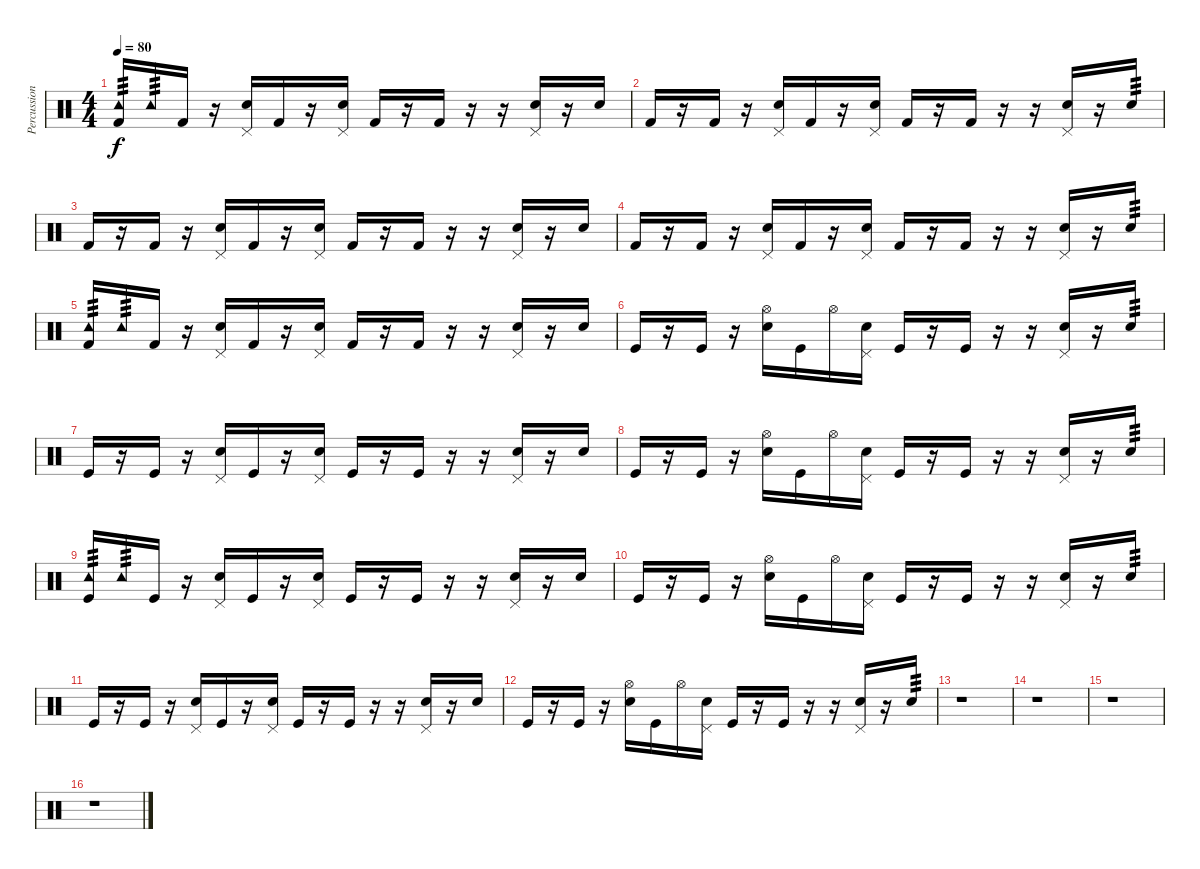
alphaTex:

\track ("Percussion" "Percussion") {instrument percussion}
\staff {score}
\articulation defaults
\ts (4 4)
\tempo 80
\clef neutral
\ks c
("Kick (hit) 2" "Tambourine (hit)").16{tp 3 dy f} "Tambourine (hit)".16{tp 3} "Kick (hit) 2".16 r.16 ("Hand Clap (hit)" "Pedal Hi-Hat (hit)").16 "Kick (hit) 2".16 r.16 ("Hand Clap (hit)" "Pedal Hi-Hat (hit)").16 "Kick (hit) 2".16 r.16 "Kick (hit) 2".16 r.16 r.16 ("Hand Clap (hit)" "Pedal Hi-Hat (hit)").16 r.16 "Hand Clap (hit)".16 |
"Kick (hit) 2".16 r.16 "Kick (hit) 2".16 r.16 ("Hand Clap (hit)" "Pedal Hi-Hat (hit)").16 "Kick (hit) 2".16 r.16 ("Hand Clap (hit)" "Pedal Hi-Hat (hit)").16 "Kick (hit) 2".16 r.16 "Kick (hit) 2".16 r.16 r.16 ("Hand Clap (hit)" "Pedal Hi-Hat (hit)").16 r.16 "Hand Clap (hit)".16{tp 3} |
"Kick (hit) 2".16 r.16 "Kick (hit) 2".16 r.16 ("Hand Clap (hit)" "Pedal Hi-Hat (hit)").16 "Kick (hit) 2".16 r.16 ("Hand Clap (hit)" "Pedal Hi-Hat (hit)").16 "Kick (hit) 2".16 r.16 "Kick (hit) 2".16 r.16 r.16 ("Hand Clap (hit)" "Pedal Hi-Hat (hit)").16 r.16 "Hand Clap (hit)".16 |
"Kick (hit) 2".16 r.16 "Kick (hit) 2".16 r.16 ("Hand Clap (hit)" "Pedal Hi-Hat (hit)").16 "Kick (hit) 2".16 r.16 ("Hand Clap (hit)" "Pedal Hi-Hat (hit)").16 "Kick (hit) 2".16 r.16 "Kick (hit) 2".16 r.16 r.16 ("Hand Clap (hit)" "Pedal Hi-Hat (hit)").16 r.16 "Hand Clap (hit)".16{tp 3} |
("Kick (hit) 2" "Tambourine (hit)").16{tp 3} "Tambourine (hit)".16{tp 3} "Kick (hit) 2".16 r.16 ("Hand Clap (hit)" "Pedal Hi-Hat (hit)").16 "Kick (hit) 2".16 r.16 ("Hand Clap (hit)" "Pedal Hi-Hat (hit)").16 "Kick (hit) 2".16 r.16 "Kick (hit) 2".16 r.16 r.16 ("Hand Clap (hit)" "Pedal Hi-Hat (hit)").16 r.16 "Hand Clap (hit)".16 |
"Kick (hit)".16 r.16 "Kick (hit)".16 r.16 ("Hand Clap (hit)" "Hi-Hat (open)").16 "Kick (hit)".16 "Hi-Hat (open)".16 ("Hand Clap (hit)" "Pedal Hi-Hat (hit)").16 "Kick (hit)".16 r.16 "Kick (hit)".16 r.16 r.16 ("Hand Clap (hit)" "Pedal Hi-Hat (hit)").16 r.16 "Hand Clap (hit)".16{tp 3} |
"Kick (hit)".16 r.16 "Kick (hit)".16 r.16 ("Hand Clap (hit)" "Pedal Hi-Hat (hit)").16 "Kick (hit)".16 r.16 ("Hand Clap (hit)" "Pedal Hi-Hat (hit)").16 "Kick (hit)".16 r.16 "Kick (hit)".16 r.16 r.16 ("Hand Clap (hit)" "Pedal Hi-Hat (hit)").16 r.16 "Hand Clap (hit)".16 |
"Kick (hit)".16 r.16 "Kick (hit)".16 r.16 ("Hand Clap (hit)" "Hi-Hat (open)").16 "Kick (hit)".16 "Hi-Hat (open)".16 ("Hand Clap (hit)" "Pedal Hi-Hat (hit)").16 "Kick (hit)".16 r.16 "Kick (hit)".16 r.16 r.16 ("Hand Clap (hit)" "Pedal Hi-Hat (hit)").16 r.16 "Hand Clap (hit)".16{tp 3} |
("Kick (hit)" "Tambourine (hit)").16{tp 3} "Tambourine (hit)".16{tp 3} "Kick (hit)".16 r.16 ("Hand Clap (hit)" "Pedal Hi-Hat (hit)").16 "Kick (hit)".16 r.16 ("Hand Clap (hit)" "Pedal Hi-Hat (hit)").16 "Kick (hit)".16 r.16 "Kick (hit)".16 r.16 r.16 ("Hand Clap (hit)" "Pedal Hi-Hat (hit)").16 r.16 "Hand Clap (hit)".16 |
"Kick (hit)".16 r.16 "Kick (hit)".16 r.16 ("Hand Clap (hit)" "Hi-Hat (open)").16 "Kick (hit)".16 "Hi-Hat (open)".16 ("Hand Clap (hit)" "Pedal Hi-Hat (hit)").16 "Kick (hit)".16 r.16 "Kick (hit)".16 r.16 r.16 ("Hand Clap (hit)" "Pedal Hi-Hat (hit)").16 r.16 "Hand Clap (hit)".16{tp 3} |
"Kick (hit)".16 r.16 "Kick (hit)".16 r.16 ("Hand Clap (hit)" "Pedal Hi-Hat (hit)").16 "Kick (hit)".16 r.16 ("Hand Clap (hit)" "Pedal Hi-Hat (hit)").16 "Kick (hit)".16 r.16 "Kick (hit)".16 r.16 r.16 ("Hand Clap (hit)" "Pedal Hi-Hat (hit)").16 r.16 "Hand Clap (hit)".16 |
"Kick (hit)".16 r.16 "Kick (hit)".16 r.16 ("Hand Clap (hit)" "Hi-Hat (open)").16 "Kick (hit)".16 "Hi-Hat (open)".16 ("Hand Clap (hit)" "Pedal Hi-Hat (hit)").16 "Kick (hit)".16 r.16 "Kick (hit)".16 r.16 r.16 ("Hand Clap (hit)" "Pedal Hi-Hat (hit)").16 r.16 "Hand Clap (hit)".16{tp 3} |
r.1 |
r.1 |
r.1 |
r.1
